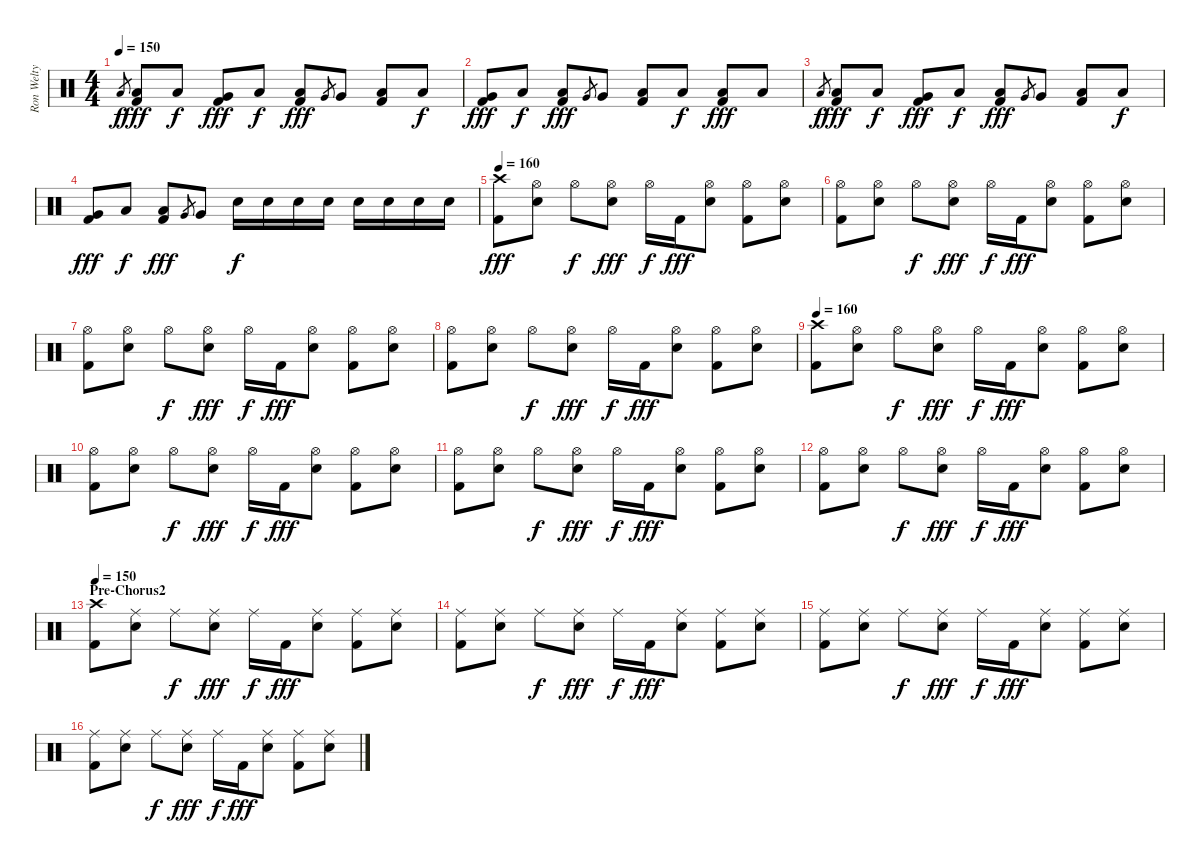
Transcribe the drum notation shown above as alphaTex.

\track ("Ron Welty" "Ron Welty") {instrument percussion}
\staff {score}
\articulation defaults
\ts (4 4)
\tempo 150
\clef neutral
\ks c "Low Floor Tom (hit)".8{gr dy f}
("Low Floor Tom (hit)" "Kick (hit) 2").8{dy fff} "Low Floor Tom (hit)".8{dy f} ("Very Low Tom (hit)" "Kick (hit) 2").8{dy fff} "Low Floor Tom (hit)".8{dy f} ("Low Floor Tom (hit)" "Kick (hit) 2").8{dy fff} "Very Low Tom (hit)".8{gr} "Very Low Tom (hit)".8 ("Low Floor Tom (hit)" "Kick (hit) 2").8 "Low Floor Tom (hit)".8{dy f} |
("Very Low Tom (hit)" "Kick (hit) 2").8{dy fff} "Low Floor Tom (hit)".8{dy f} ("Low Floor Tom (hit)" "Kick (hit) 2").8{dy fff} "Very Low Tom (hit)".8{gr} "Very Low Tom (hit)".8 ("Low Floor Tom (hit)" "Kick (hit) 2").8 "Low Floor Tom (hit)".8{dy f} ("Low Floor Tom (hit)" "Kick (hit) 2").8{dy fff} "Low Floor Tom (hit)".8 |
"Low Floor Tom (hit)".8{gr dy f} ("Low Floor Tom (hit)" "Kick (hit) 2").8{dy fff} "Low Floor Tom (hit)".8{dy f} ("Very Low Tom (hit)" "Kick (hit) 2").8{dy fff} "Low Floor Tom (hit)".8{dy f} ("Low Floor Tom (hit)" "Kick (hit) 2").8{dy fff} "Very Low Tom (hit)".8{gr} "Very Low Tom (hit)".8 ("Low Floor Tom (hit)" "Kick (hit) 2").8 "Low Floor Tom (hit)".8{dy f} |
("Very Low Tom (hit)" "Kick (hit) 2").8{dy fff} "Low Floor Tom (hit)".8{dy f} ("Low Floor Tom (hit)" "Kick (hit) 2").8{dy fff} "Very Low Tom (hit)".8{gr} "Very Low Tom (hit)".8 "Snare (hit) 2".16{dy f} "Snare (hit) 2".16 "Snare (hit) 2".16 "Snare (hit) 2".16 "Snare (hit) 2".16 "Snare (hit) 2".16 "Snare (hit) 2".16 "Snare (hit) 2".16 |
\tempo 160
("Crash high (hit)" "Kick (hit) 2").8{dy fff} ("Hi-Hat (open)" "Snare (hit) 2").8 "Hi-Hat (open)".8{dy f} ("Hi-Hat (open)" "Snare (hit) 2").8{dy fff} "Hi-Hat (open)".16{dy f} "Kick (hit) 2".16{dy fff} ("Hi-Hat (open)" "Snare (hit) 2").8 ("Hi-Hat (open)" "Kick (hit) 2").8 ("Hi-Hat (open)" "Snare (hit) 2").8 |
("Hi-Hat (open)" "Kick (hit) 2").8 ("Hi-Hat (open)" "Snare (hit) 2").8 "Hi-Hat (open)".8{dy f} ("Hi-Hat (open)" "Snare (hit) 2").8{dy fff} "Hi-Hat (open)".16{dy f} "Kick (hit) 2".16{dy fff} ("Hi-Hat (open)" "Snare (hit) 2").8 ("Hi-Hat (open)" "Kick (hit) 2").8 ("Hi-Hat (open)" "Snare (hit) 2").8 |
("Hi-Hat (open)" "Kick (hit) 2").8 ("Hi-Hat (open)" "Snare (hit) 2").8 "Hi-Hat (open)".8{dy f} ("Hi-Hat (open)" "Snare (hit) 2").8{dy fff} "Hi-Hat (open)".16{dy f} "Kick (hit) 2".16{dy fff} ("Hi-Hat (open)" "Snare (hit) 2").8 ("Hi-Hat (open)" "Kick (hit) 2").8 ("Hi-Hat (open)" "Snare (hit) 2").8 |
("Hi-Hat (open)" "Kick (hit) 2").8 ("Hi-Hat (open)" "Snare (hit) 2").8 "Hi-Hat (open)".8{dy f} ("Hi-Hat (open)" "Snare (hit) 2").8{dy fff} "Hi-Hat (open)".16{dy f} "Kick (hit) 2".16{dy fff} ("Hi-Hat (open)" "Snare (hit) 2").8 ("Hi-Hat (open)" "Kick (hit) 2").8 ("Hi-Hat (open)" "Snare (hit) 2").8 |
\tempo 160
("Crash high (hit)" "Kick (hit) 2").8 ("Hi-Hat (open)" "Snare (hit) 2").8 "Hi-Hat (open)".8{dy f} ("Hi-Hat (open)" "Snare (hit) 2").8{dy fff} "Hi-Hat (open)".16{dy f} "Kick (hit) 2".16{dy fff} ("Hi-Hat (open)" "Snare (hit) 2").8 ("Hi-Hat (open)" "Kick (hit) 2").8 ("Hi-Hat (open)" "Snare (hit) 2").8 |
("Hi-Hat (open)" "Kick (hit) 2").8 ("Hi-Hat (open)" "Snare (hit) 2").8 "Hi-Hat (open)".8{dy f} ("Hi-Hat (open)" "Snare (hit) 2").8{dy fff} "Hi-Hat (open)".16{dy f} "Kick (hit) 2".16{dy fff} ("Hi-Hat (open)" "Snare (hit) 2").8 ("Hi-Hat (open)" "Kick (hit) 2").8 ("Hi-Hat (open)" "Snare (hit) 2").8 |
("Hi-Hat (open)" "Kick (hit) 2").8 ("Hi-Hat (open)" "Snare (hit) 2").8 "Hi-Hat (open)".8{dy f} ("Hi-Hat (open)" "Snare (hit) 2").8{dy fff} "Hi-Hat (open)".16{dy f} "Kick (hit) 2".16{dy fff} ("Hi-Hat (open)" "Snare (hit) 2").8 ("Hi-Hat (open)" "Kick (hit) 2").8 ("Hi-Hat (open)" "Snare (hit) 2").8 |
("Hi-Hat (open)" "Kick (hit) 2").8 ("Hi-Hat (open)" "Snare (hit) 2").8 "Hi-Hat (open)".8{dy f} ("Hi-Hat (open)" "Snare (hit) 2").8{dy fff} "Hi-Hat (open)".16{dy f} "Kick (hit) 2".16{dy fff} ("Hi-Hat (open)" "Snare (hit) 2").8 ("Hi-Hat (open)" "Kick (hit) 2").8 ("Hi-Hat (open)" "Snare (hit) 2").8 |
\section ("" "Pre-Chorus2")
\tempo 150
("Crash high (hit)" "Kick (hit) 2").8 ("Ride (middle)" "Snare (hit) 2").8 "Ride (middle)".8{dy f} ("Ride (middle)" "Snare (hit) 2").8{dy fff} "Ride (middle)".16{dy f} "Kick (hit) 2".16{dy fff} ("Ride (middle)" "Snare (hit) 2").8 ("Ride (middle)" "Kick (hit) 2").8 ("Ride (middle)" "Snare (hit) 2").8 |
("Ride (middle)" "Kick (hit) 2").8 ("Ride (middle)" "Snare (hit) 2").8 "Ride (middle)".8{dy f} ("Ride (middle)" "Snare (hit) 2").8{dy fff} "Ride (middle)".16{dy f} "Kick (hit) 2".16{dy fff} ("Ride (middle)" "Snare (hit) 2").8 ("Ride (middle)" "Kick (hit) 2").8 ("Ride (middle)" "Snare (hit) 2").8 |
("Ride (middle)" "Kick (hit) 2").8 ("Ride (middle)" "Snare (hit) 2").8 "Ride (middle)".8{dy f} ("Ride (middle)" "Snare (hit) 2").8{dy fff} "Ride (middle)".16{dy f} "Kick (hit) 2".16{dy fff} ("Ride (middle)" "Snare (hit) 2").8 ("Ride (middle)" "Kick (hit) 2").8 ("Ride (middle)" "Snare (hit) 2").8 |
("Ride (middle)" "Kick (hit) 2").8 ("Ride (middle)" "Snare (hit) 2").8 "Ride (middle)".8{dy f} ("Ride (middle)" "Snare (hit) 2").8{dy fff} "Ride (middle)".16{dy f} "Kick (hit) 2".16{dy fff} ("Ride (middle)" "Snare (hit) 2").8 ("Ride (middle)" "Kick (hit) 2").8 ("Ride (middle)" "Snare (hit) 2").8
